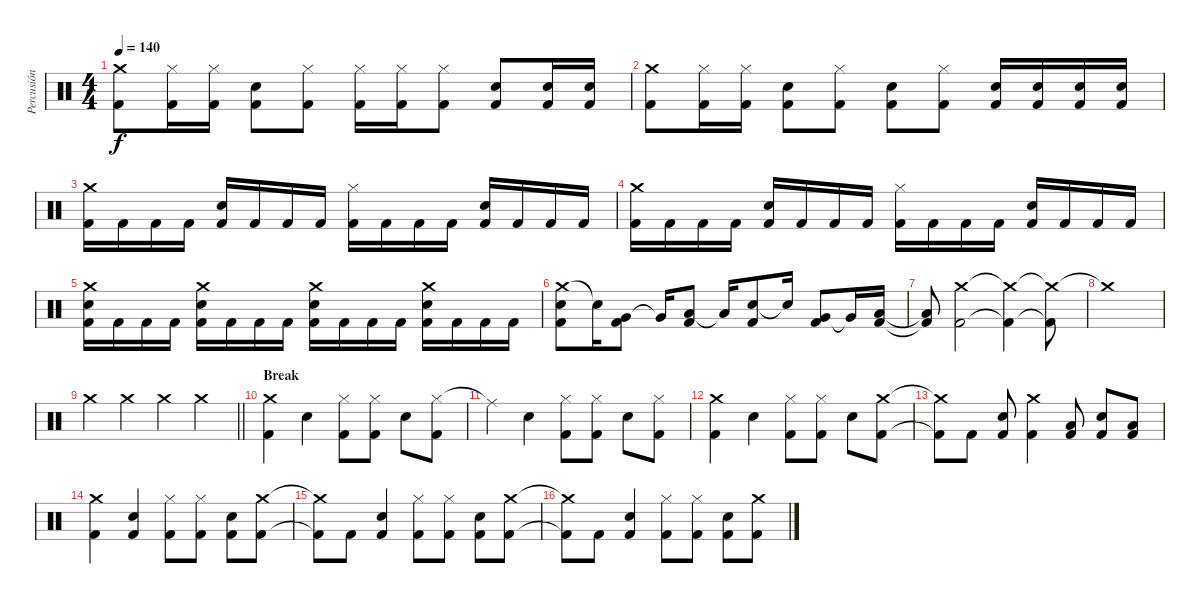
\track ("Percusión" "Percusión") {instrument percussion}
\staff {score}
\articulation defaults
\ts (4 4)
\tempo 140
\clef neutral
\ks c
("Crash medium (hit)" "Kick (hit) 2").8{dy f} ("Hi-Hat (closed)" "Kick (hit) 2").16 ("Hi-Hat (closed)" "Kick (hit) 2").16 ("Snare (hit) 2" "Kick (hit) 2").8 ("Hi-Hat (closed)" "Kick (hit) 2").8 ("Hi-Hat (closed)" "Kick (hit) 2").16 ("Hi-Hat (closed)" "Kick (hit) 2").16 ("Hi-Hat (closed)" "Kick (hit) 2").8 ("Snare (hit) 2" "Kick (hit) 2").8 ("Snare (hit) 2" "Kick (hit) 2").16 ("Snare (hit) 2" "Kick (hit) 2").16 |
("Crash medium (hit)" "Kick (hit) 2").8 ("Hi-Hat (closed)" "Kick (hit) 2").16 ("Hi-Hat (closed)" "Kick (hit) 2").16 ("Snare (hit) 2" "Kick (hit) 2").8 ("Hi-Hat (closed)" "Kick (hit) 2").8 ("Snare (hit) 2" "Kick (hit) 2").8 ("Hi-Hat (closed)" "Kick (hit) 2").8 ("Snare (hit) 2" "Kick (hit) 2").16 ("Snare (hit) 2" "Kick (hit) 2").16 ("Snare (hit) 2" "Kick (hit) 2").16 ("Snare (hit) 2" "Kick (hit) 2").16 |
("Crash medium (hit)" "Kick (hit) 2").16 "Kick (hit) 2".16 "Kick (hit) 2".16 "Kick (hit) 2".16 ("Snare (hit) 2" "Kick (hit) 2").16 "Kick (hit) 2".16 "Kick (hit) 2".16 "Kick (hit) 2".16 ("Hi-Hat (closed)" "Kick (hit) 2").16 "Kick (hit) 2".16 "Kick (hit) 2".16 "Kick (hit) 2".16 ("Snare (hit) 2" "Kick (hit) 2").16 "Kick (hit) 2".16 "Kick (hit) 2".16 "Kick (hit) 2".16 |
("Crash medium (hit)" "Kick (hit) 2").16 "Kick (hit) 2".16 "Kick (hit) 2".16 "Kick (hit) 2".16 ("Snare (hit) 2" "Kick (hit) 2").16 "Kick (hit) 2".16 "Kick (hit) 2".16 "Kick (hit) 2".16 ("Hi-Hat (closed)" "Kick (hit) 2").16 "Kick (hit) 2".16 "Kick (hit) 2".16 "Kick (hit) 2".16 ("Snare (hit) 2" "Kick (hit) 2").16 "Kick (hit) 2".16 "Kick (hit) 2".16 "Kick (hit) 2".16 |
("Crash medium (hit)" "Snare (hit) 2" "Kick (hit) 2").16 "Kick (hit) 2".16 "Kick (hit) 2".16 "Kick (hit) 2".16 ("Crash medium (hit)" "Snare (hit) 2" "Kick (hit) 2").16 "Kick (hit) 2".16 "Kick (hit) 2".16 "Kick (hit) 2".16 ("Crash medium (hit)" "Snare (hit) 2" "Kick (hit) 2").16 "Kick (hit) 2".16 "Kick (hit) 2".16 "Kick (hit) 2".16 ("Crash medium (hit)" "Snare (hit) 2" "Kick (hit) 2").16 "Kick (hit) 2".16 "Kick (hit) 2".16 "Kick (hit) 2".16 |
("Crash medium (hit)" "Snare (hit) 2" "Kick (hit) 2").8 "Snare (hit) 2"{t}.16 ("Very Low Tom (hit)" "Kick (hit) 2").8 "Very Low Tom (hit)"{t}.16 ("Low Floor Tom (hit)" "Kick (hit) 2").8 "Low Floor Tom (hit)"{t}.16 ("Snare (hit) 2" "Kick (hit) 2").8 "Snare (hit) 2"{t}.16 ("Very Low Tom (hit)" "Kick (hit) 2").8 "Very Low Tom (hit)"{t}.16 ("Low Floor Tom (hit)" "Kick (hit) 2").16 |
("Low Floor Tom (hit)"{t} "Kick (hit) 2"{t}).8 ("Crash medium (hit)" "Kick (hit) 2").2 ("Crash medium (hit)"{t} "Kick (hit) 2"{t}).4 ("Crash medium (hit)"{t} "Kick (hit) 2"{t}).8 |
"Crash medium (hit)"{t}.1 |
\barLineRight lightlight "Crash medium (hit)".4 "Crash medium (hit)".4 "Crash medium (hit)".4 "Crash medium (hit)".4
|
\section ("" "Break")
("Crash medium (hit)" "Kick (hit) 2").4 "Snare (hit) 2".4 ("Hi-Hat (closed)" "Kick (hit) 2").8 ("Hi-Hat (closed)" "Kick (hit) 2").8 "Snare (hit) 2".8 ("Hi-Hat (closed)" "Kick (hit) 2").8 |
"Ride (middle)"{t}.4 "Snare (hit) 2".4 ("Hi-Hat (closed)" "Kick (hit) 2").8 ("Hi-Hat (closed)" "Kick (hit) 2").8 "Snare (hit) 2".8 ("Hi-Hat (closed)" "Kick (hit) 2").8 |
("Crash medium (hit)" "Kick (hit) 2").4 "Snare (hit) 2".4 ("Hi-Hat (closed)" "Kick (hit) 2").8 ("Hi-Hat (closed)" "Kick (hit) 2").8 "Snare (hit) 2".8 ("Crash medium (hit)" "Kick (hit) 2").8 |
("Crash medium (hit)"{t} "Kick (hit) 2"{t}).8 "Kick (hit) 2".8 ("Snare (hit) 2" "Kick (hit) 2").8 ("Crash medium (hit)" "Kick (hit) 2").4 ("Low Floor Tom (hit)" "Kick (hit) 2").8 ("Snare (hit) 2" "Kick (hit) 2").8 ("Low Floor Tom (hit)" "Kick (hit) 2").8 |
("Crash medium (hit)" "Kick (hit) 2").4 ("Snare (hit) 2" "Kick (hit) 2").4 ("Hi-Hat (closed)" "Kick (hit) 2").8 ("Hi-Hat (closed)" "Kick (hit) 2").8 ("Snare (hit) 2" "Kick (hit) 2").8 ("Crash medium (hit)" "Kick (hit) 2").8 |
("Crash medium (hit)"{t} "Kick (hit) 2"{t}).8 "Kick (hit) 2".8 ("Snare (hit) 2" "Kick (hit) 2").4 ("Hi-Hat (closed)" "Kick (hit) 2").8 ("Hi-Hat (closed)" "Kick (hit) 2").8 ("Snare (hit) 2" "Kick (hit) 2").8 ("Crash medium (hit)" "Kick (hit) 2").8 |
("Crash medium (hit)"{t} "Kick (hit) 2"{t}).8 "Kick (hit) 2".8 ("Snare (hit) 2" "Kick (hit) 2").4 ("Hi-Hat (closed)" "Kick (hit) 2").8 ("Hi-Hat (closed)" "Kick (hit) 2").8 ("Snare (hit) 2" "Kick (hit) 2").8 ("Crash medium (hit)" "Kick (hit) 2").8
